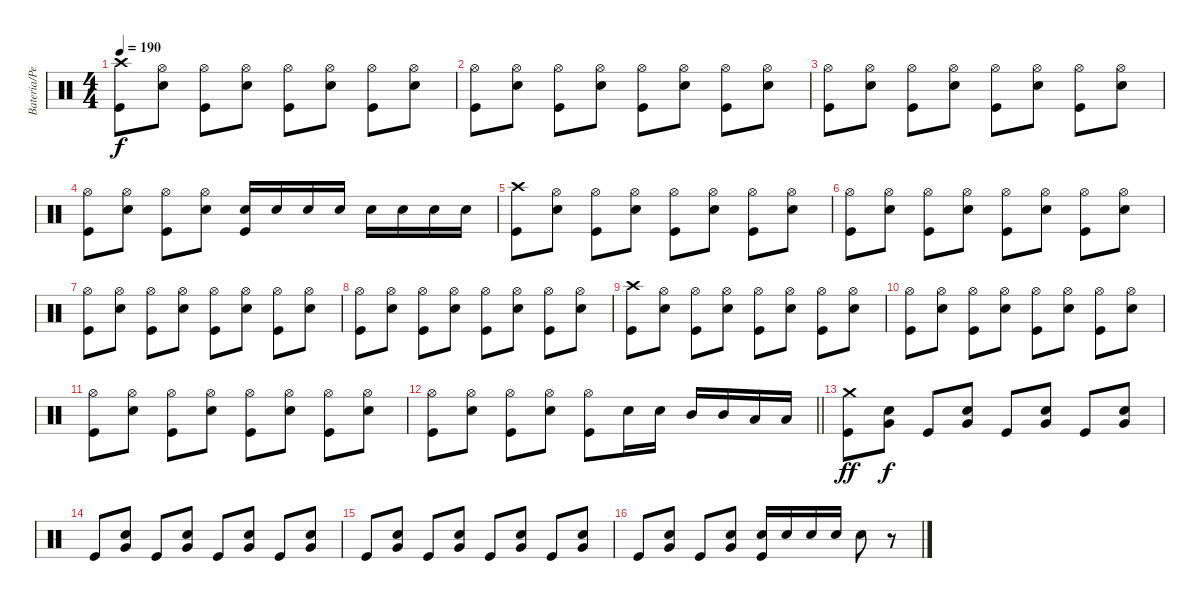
\track ("Bateria/Percussion" "Bateria/Pe") {instrument percussion}
\staff {score}
\articulation defaults
\ts (4 4)
\tempo 190
\clef neutral
\ks c
("Crash high (hit)" "Kick (hit)").8{dy f} ("Hi-Hat (open)" "Snare (hit) 2").8 ("Hi-Hat (open)" "Kick (hit)").8 ("Hi-Hat (open)" "Snare (hit) 2").8 ("Hi-Hat (open)" "Kick (hit)").8 ("Hi-Hat (open)" "Snare (hit) 2").8 ("Hi-Hat (open)" "Kick (hit)").8 ("Hi-Hat (open)" "Snare (hit) 2").8 |
("Hi-Hat (open)" "Kick (hit)").8 ("Hi-Hat (open)" "Snare (hit) 2").8 ("Hi-Hat (open)" "Kick (hit)").8 ("Hi-Hat (open)" "Snare (hit) 2").8 ("Hi-Hat (open)" "Kick (hit)").8 ("Hi-Hat (open)" "Snare (hit) 2").8 ("Hi-Hat (open)" "Kick (hit)").8 ("Hi-Hat (open)" "Snare (hit) 2").8 |
("Hi-Hat (open)" "Kick (hit)").8 ("Hi-Hat (open)" "Snare (hit) 2").8 ("Hi-Hat (open)" "Kick (hit)").8 ("Hi-Hat (open)" "Snare (hit) 2").8 ("Hi-Hat (open)" "Kick (hit)").8 ("Hi-Hat (open)" "Snare (hit) 2").8 ("Hi-Hat (open)" "Kick (hit)").8 ("Hi-Hat (open)" "Snare (hit) 2").8 |
("Hi-Hat (open)" "Kick (hit)").8 ("Hi-Hat (open)" "Snare (hit) 2").8 ("Hi-Hat (open)" "Kick (hit)").8 ("Hi-Hat (open)" "Snare (hit) 2").8 ("Snare (hit) 2" "Kick (hit)").16 "Snare (hit) 2".16 "Snare (hit) 2".16 "Snare (hit) 2".16 "Snare (hit) 2".16 "Snare (hit) 2".16 "Snare (hit) 2".16 "Snare (hit) 2".16 |
("Crash high (hit)" "Kick (hit)").8 ("Hi-Hat (open)" "Snare (hit) 2").8 ("Hi-Hat (open)" "Kick (hit)").8 ("Hi-Hat (open)" "Snare (hit) 2").8 ("Hi-Hat (open)" "Kick (hit)").8 ("Hi-Hat (open)" "Snare (hit) 2").8 ("Hi-Hat (open)" "Kick (hit)").8 ("Hi-Hat (open)" "Snare (hit) 2").8 |
("Hi-Hat (open)" "Kick (hit)").8 ("Hi-Hat (open)" "Snare (hit) 2").8 ("Hi-Hat (open)" "Kick (hit)").8 ("Hi-Hat (open)" "Snare (hit) 2").8 ("Hi-Hat (open)" "Kick (hit)").8 ("Hi-Hat (open)" "Snare (hit) 2").8 ("Hi-Hat (open)" "Kick (hit)").8 ("Hi-Hat (open)" "Snare (hit) 2").8 |
("Hi-Hat (open)" "Kick (hit)").8 ("Hi-Hat (open)" "Snare (hit) 2").8 ("Hi-Hat (open)" "Kick (hit)").8 ("Hi-Hat (open)" "Snare (hit) 2").8 ("Hi-Hat (open)" "Kick (hit)").8 ("Hi-Hat (open)" "Snare (hit) 2").8 ("Hi-Hat (open)" "Kick (hit)").8 ("Hi-Hat (open)" "Snare (hit) 2").8 |
("Hi-Hat (open)" "Kick (hit)").8 ("Hi-Hat (open)" "Snare (hit) 2").8 ("Hi-Hat (open)" "Kick (hit)").8 ("Hi-Hat (open)" "Snare (hit) 2").8 ("Hi-Hat (open)" "Kick (hit)").8 ("Hi-Hat (open)" "Snare (hit) 2").8 ("Hi-Hat (open)" "Kick (hit)").8 ("Hi-Hat (open)" "Snare (hit) 2").8 |
("Crash high (hit)" "Kick (hit)").8 ("Hi-Hat (open)" "Snare (hit) 2").8 ("Hi-Hat (open)" "Kick (hit)").8 ("Hi-Hat (open)" "Snare (hit) 2").8 ("Hi-Hat (open)" "Kick (hit)").8 ("Hi-Hat (open)" "Snare (hit) 2").8 ("Hi-Hat (open)" "Kick (hit)").8 ("Hi-Hat (open)" "Snare (hit) 2").8 |
("Hi-Hat (open)" "Kick (hit)").8 ("Hi-Hat (open)" "Snare (hit) 2").8 ("Hi-Hat (open)" "Kick (hit)").8 ("Hi-Hat (open)" "Snare (hit) 2").8 ("Hi-Hat (open)" "Kick (hit)").8 ("Hi-Hat (open)" "Snare (hit) 2").8 ("Hi-Hat (open)" "Kick (hit)").8 ("Hi-Hat (open)" "Snare (hit) 2").8 |
("Hi-Hat (open)" "Kick (hit)").8 ("Hi-Hat (open)" "Snare (hit) 2").8 ("Hi-Hat (open)" "Kick (hit)").8 ("Hi-Hat (open)" "Snare (hit) 2").8 ("Hi-Hat (open)" "Kick (hit)").8 ("Hi-Hat (open)" "Snare (hit) 2").8 ("Hi-Hat (open)" "Kick (hit)").8 ("Hi-Hat (open)" "Snare (hit) 2").8 |
\barLineRight lightlight
("Hi-Hat (open)" "Kick (hit)").8 ("Hi-Hat (open)" "Snare (hit) 2").8 ("Hi-Hat (open)" "Kick (hit)").8 ("Hi-Hat (open)" "Snare (hit) 2").8 ("Hi-Hat (open)" "Kick (hit)").8 "Snare (hit) 2".16 "Snare (hit) 2".16 "Mid Tom (hit)".16 "Mid Tom (hit)".16 "Low Tom (hit)".16 "Low Tom (hit)".16 |
\section ("" "")
("Crash medium (hit)" "Kick (hit)").8{dy ff} ("Very Low Tom (hit)" "Snare (hit) 2").8{dy f} "Kick (hit)".8 ("Very Low Tom (hit)" "Snare (hit) 2").8 "Kick (hit)".8 ("Very Low Tom (hit)" "Snare (hit) 2").8 "Kick (hit)".8 ("Very Low Tom (hit)" "Snare (hit) 2").8 |
"Kick (hit)".8 ("Very Low Tom (hit)" "Snare (hit) 2").8 "Kick (hit)".8 ("Very Low Tom (hit)" "Snare (hit) 2").8 "Kick (hit)".8 ("Very Low Tom (hit)" "Snare (hit) 2").8 "Kick (hit)".8 ("Very Low Tom (hit)" "Snare (hit) 2").8 |
"Kick (hit)".8 ("Very Low Tom (hit)" "Snare (hit) 2").8 "Kick (hit)".8 ("Very Low Tom (hit)" "Snare (hit) 2").8 "Kick (hit)".8 ("Very Low Tom (hit)" "Snare (hit) 2").8 "Kick (hit)".8 ("Very Low Tom (hit)" "Snare (hit) 2").8 |
"Kick (hit)".8 ("Very Low Tom (hit)" "Snare (hit) 2").8 "Kick (hit)".8 ("Very Low Tom (hit)" "Snare (hit) 2").8 ("Snare (hit) 2" "Kick (hit)").16 "Snare (hit) 2".16 "Snare (hit) 2".16 "Snare (hit) 2".16 "Snare (hit) 2".8 r.8
